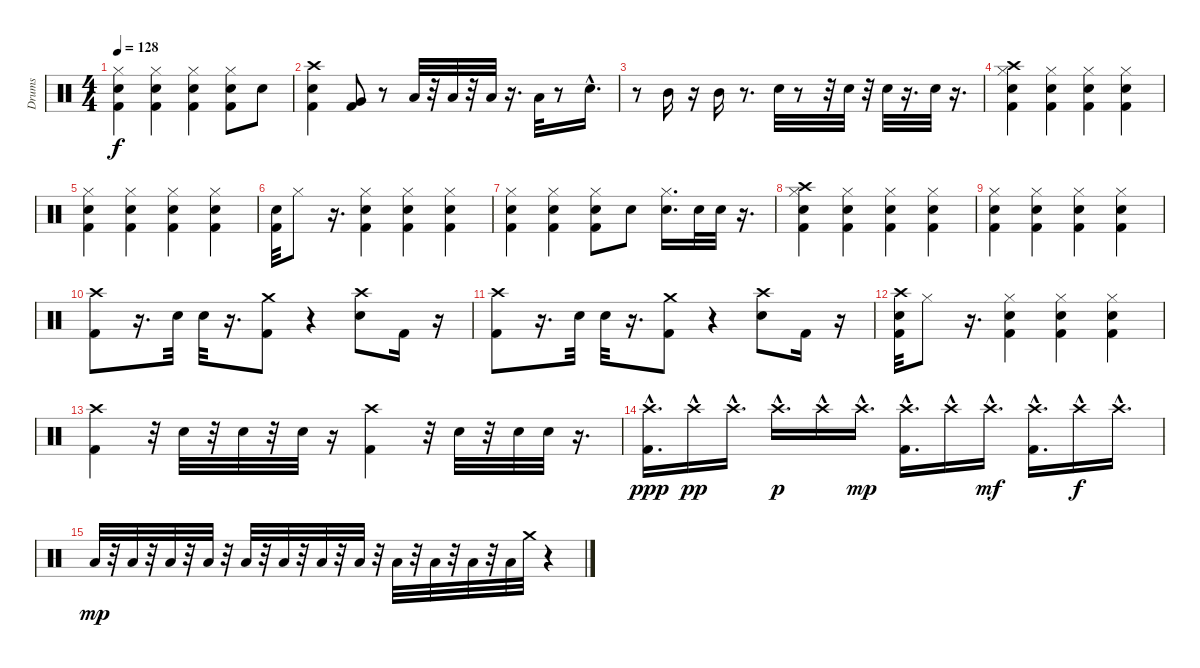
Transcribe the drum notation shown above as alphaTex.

\track ("Drums" "Drums") {instrument percussion}
\staff {score}
\articulation defaults
\ts (4 4)
\tempo 128
\clef neutral
\ks c
("Kick (hit) 2" "Snare (hit) 2" "Hi-Hat (closed)").4{dy f} ("Snare (hit) 2" "Kick (hit) 2" "Hi-Hat (closed)").4 ("Kick (hit) 2" "Hi-Hat (closed)" "Snare (hit) 2").4 ("Snare (hit) 2" "Kick (hit) 2" "Hi-Hat (closed)").8 "Snare (hit) 2".8 |
("Kick (hit) 2" "Crash high (hit)" "Snare (hit) 2").4 ("Very Low Tom (hit)" "Kick (hit) 2").8 r.8 "Low Tom (hit)".32 r.32 "Low Tom (hit)".32 r.32 "Low Tom (hit)".32 r.16{d} "Low Tom (hit)".32 r.8 "Snare (hit) 2"{hac}.16{d} |
r.8 "Mid Tom (hit)".16 r.16 "Mid Tom (hit)".16 r.8{d} "Snare (hit) 2".32 r.8 r.32 "Snare (hit) 2".32 r.32 "Snare (hit) 2".32 r.16{d} "Snare (hit) 2".32 r.16{d} |
("Snare (hit) 2" "Hi-Hat (closed)" "Kick (hit) 2" "Crash high (hit)").4 ("Snare (hit) 2" "Hi-Hat (closed)" "Kick (hit) 2").4 ("Snare (hit) 2" "Kick (hit) 2" "Hi-Hat (closed)").4 ("Snare (hit) 2" "Hi-Hat (closed)" "Kick (hit) 2").4 |
("Kick (hit) 2" "Hi-Hat (closed)" "Snare (hit) 2").4 ("Kick (hit) 2" "Snare (hit) 2" "Hi-Hat (closed)").4 ("Kick (hit) 2" "Hi-Hat (closed)" "Snare (hit) 2").4 ("Snare (hit) 2" "Kick (hit) 2" "Hi-Hat (closed)").4 |
("Snare (hit) 2" "Kick (hit) 2").32 "Hi-Hat (closed)".8 r.16{d} ("Kick (hit) 2" "Snare (hit) 2" "Hi-Hat (closed)").4 ("Snare (hit) 2" "Kick (hit) 2" "Hi-Hat (closed)").4 ("Snare (hit) 2" "Kick (hit) 2" "Hi-Hat (closed)").4 |
("Kick (hit) 2" "Hi-Hat (closed)" "Snare (hit) 2").4 ("Kick (hit) 2" "Snare (hit) 2" "Hi-Hat (closed)").4 ("Kick (hit) 2" "Hi-Hat (closed)" "Snare (hit) 2").8 "Snare (hit) 2".8 ("Snare (hit) 2" "Hi-Hat (closed)").16{d} "Snare (hit) 2".32 "Snare (hit) 2".32 r.16{d} |
("Hi-Hat (closed)" "Crash high (hit)" "Kick (hit) 2" "Snare (hit) 2").4 ("Kick (hit) 2" "Snare (hit) 2" "Hi-Hat (closed)").4 ("Kick (hit) 2" "Snare (hit) 2" "Hi-Hat (closed)").4 ("Snare (hit) 2" "Hi-Hat (closed)" "Kick (hit) 2").4 |
("Snare (hit) 2" "Kick (hit) 2" "Hi-Hat (closed)").4 ("Kick (hit) 2" "Hi-Hat (closed)" "Snare (hit) 2").4 ("Snare (hit) 2" "Kick (hit) 2" "Hi-Hat (closed)").4 ("Hi-Hat (closed)" "Snare (hit) 2" "Kick (hit) 2").4 |
("Kick (hit) 2" "Crash high (hit)").8 r.16{d} "Snare (hit) 2".32 "Snare (hit) 2".32 r.16{d} ("Crash medium (hit)" "Kick (hit) 2").8 r.4 ("Snare (hit) 2" "Crash high (hit)").8 "Kick (hit) 2".16 r.16 |
("Crash high (hit)" "Kick (hit) 2").8 r.16{d} "Snare (hit) 2".32 "Snare (hit) 2".32 r.16{d} ("Crash medium (hit)" "Kick (hit) 2").8 r.4 ("Crash high (hit)" "Snare (hit) 2").8 "Kick (hit) 2".16 r.16 |
("Crash high (hit)" "Kick (hit) 2" "Snare (hit) 2").32 "Hi-Hat (closed)".8 r.16{d} ("Hi-Hat (closed)" "Snare (hit) 2" "Kick (hit) 2").4 ("Snare (hit) 2" "Hi-Hat (closed)" "Kick (hit) 2").4 ("Snare (hit) 2" "Kick (hit) 2" "Hi-Hat (closed)").4 |
("Kick (hit) 2" "Crash high (hit)").4 r.32 "Snare (hit) 2".32 r.32 "Snare (hit) 2".32 r.32 "Snare (hit) 2".32 r.16 ("Crash high (hit)" "Kick (hit) 2").4 r.32 "Snare (hit) 2".32 r.32 "Snare (hit) 2".32 "Snare (hit) 2".32 r.16{d} |
("Crash high (hit)"{hac} "Kick (hit) 2").16{d dy ppp} "Crash high (hit)"{hac}.16{dy pp} "Crash high (hit)"{hac}.16{d} "Crash high (hit)"{hac}.16{d dy p} "Crash high (hit)"{hac}.16 "Crash high (hit)"{hac}.16{d dy mp} ("Crash high (hit)"{hac} "Kick (hit) 2").16{d} "Crash high (hit)"{hac}.16 "Crash high (hit)"{hac}.16{d dy mf} ("Kick (hit) 2" "Crash high (hit)"{hac}).16{d} "Crash high (hit)"{hac}.16{dy f} "Crash high (hit)"{hac}.16{d} |
"Low Tom (hit)".32{dy mp} r.32 "Low Tom (hit)".32 r.32 "Low Tom (hit)".32 r.32 "Low Tom (hit)".32 r.32 "Low Tom (hit)".32 r.32 "Low Tom (hit)".32 r.32 "Low Tom (hit)".32 r.32 "Low Tom (hit)".32 r.32 "Low Tom (hit)".32 r.32 "Low Tom (hit)".32 r.32 "Low Tom (hit)".32 r.32 "Low Tom (hit)".32 "Crash medium (hit)".32 r.4
